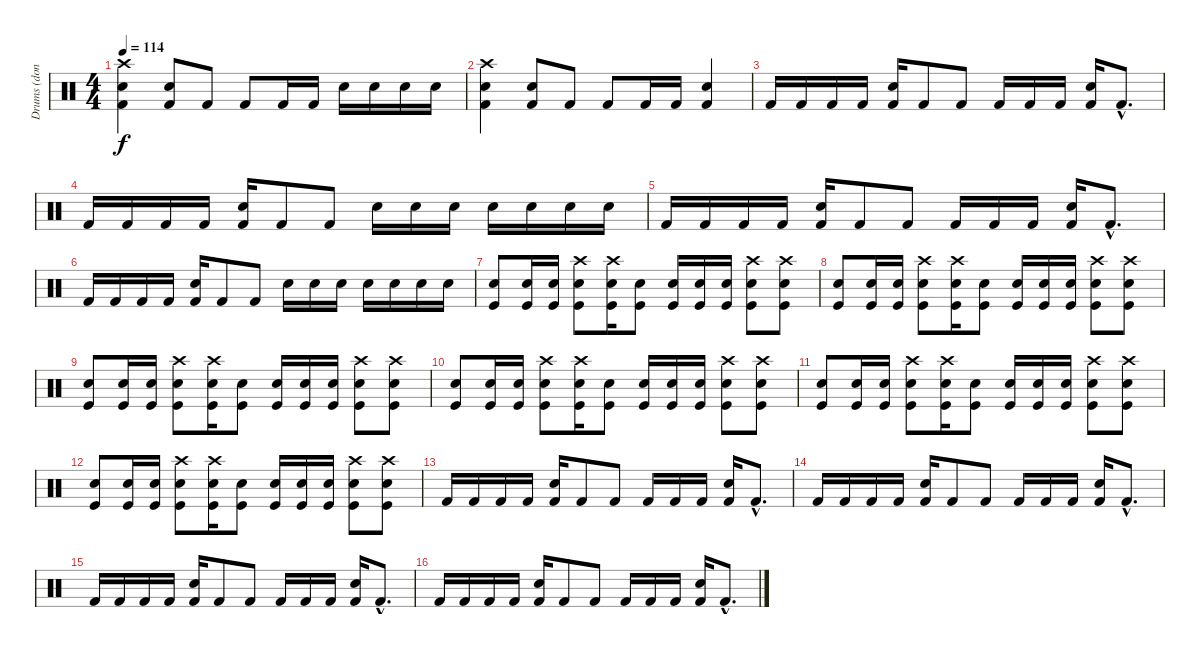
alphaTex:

\track ("Drums (done badly)" "Drums (don") {instrument percussion}
\staff {score}
\articulation defaults
\ts (4 4)
\tempo 114
\clef neutral
\ks c
("Crash high (hit)" "Snare (hit) 2" "Kick (hit) 2").4{dy f} ("Snare (hit) 2" "Kick (hit) 2").8 "Kick (hit) 2".8 "Kick (hit) 2".8 "Kick (hit) 2".16 "Kick (hit) 2".16 "Snare (hit) 2".16 "Snare (hit) 2".16 "Snare (hit) 2".16 "Snare (hit) 2".16 |
("Crash high (hit)" "Snare (hit) 2" "Kick (hit) 2").4 ("Snare (hit) 2" "Kick (hit) 2").8 "Kick (hit) 2".8 "Kick (hit) 2".8 "Kick (hit) 2".16 "Kick (hit) 2".16 ("Snare (hit) 2" "Kick (hit) 2").4 |
"Kick (hit) 2".16 "Kick (hit) 2".16 "Kick (hit) 2".16 "Kick (hit) 2".16 ("Snare (hit) 2" "Kick (hit) 2").16 "Kick (hit) 2".8 "Kick (hit) 2".8 "Kick (hit) 2".16 "Kick (hit) 2".16 "Kick (hit) 2".16 ("Snare (hit) 2" "Kick (hit) 2").16 "Kick (hit) 2"{hac}.8{d} |
"Kick (hit) 2".16 "Kick (hit) 2".16 "Kick (hit) 2".16 "Kick (hit) 2".16 ("Snare (hit) 2" "Kick (hit) 2").16 "Kick (hit) 2".8 "Kick (hit) 2".8 "Snare (hit) 2".16 "Snare (hit) 2".16 "Snare (hit) 2".16 "Snare (hit) 2".16 "Snare (hit) 2".16 "Snare (hit) 2".16 "Snare (hit) 2".16 |
"Kick (hit) 2".16 "Kick (hit) 2".16 "Kick (hit) 2".16 "Kick (hit) 2".16 ("Snare (hit) 2" "Kick (hit) 2").16 "Kick (hit) 2".8 "Kick (hit) 2".8 "Kick (hit) 2".16 "Kick (hit) 2".16 "Kick (hit) 2".16 ("Snare (hit) 2" "Kick (hit) 2").16 "Kick (hit) 2"{hac}.8{d} |
"Kick (hit) 2".16 "Kick (hit) 2".16 "Kick (hit) 2".16 "Kick (hit) 2".16 ("Snare (hit) 2" "Kick (hit) 2").16 "Kick (hit) 2".8 "Kick (hit) 2".8 "Snare (hit) 2".16 "Snare (hit) 2".16 "Snare (hit) 2".16 "Snare (hit) 2".16 "Snare (hit) 2".16 "Snare (hit) 2".16 "Snare (hit) 2".16 |
("Snare (hit) 2" "Kick (hit)").8 ("Snare (hit) 2" "Kick (hit)").16 ("Snare (hit) 2" "Kick (hit)").16 ("Crash high (hit)" "Snare (hit) 2" "Kick (hit)").8 ("Crash high (hit)" "Snare (hit) 2" "Kick (hit)").16 ("Snare (hit) 2" "Kick (hit)").8 ("Snare (hit) 2" "Kick (hit)").16 ("Snare (hit) 2" "Kick (hit)").16 ("Snare (hit) 2" "Kick (hit)").16 ("Crash high (hit)" "Snare (hit) 2" "Kick (hit)").8 ("Crash high (hit)" "Snare (hit) 2" "Kick (hit)").8 |
("Snare (hit) 2" "Kick (hit)").8 ("Snare (hit) 2" "Kick (hit)").16 ("Snare (hit) 2" "Kick (hit)").16 ("Crash high (hit)" "Snare (hit) 2" "Kick (hit)").8 ("Crash high (hit)" "Snare (hit) 2" "Kick (hit)").16 ("Snare (hit) 2" "Kick (hit)").8 ("Snare (hit) 2" "Kick (hit)").16 ("Snare (hit) 2" "Kick (hit)").16 ("Snare (hit) 2" "Kick (hit)").16 ("Crash high (hit)" "Snare (hit) 2" "Kick (hit)").8 ("Crash high (hit)" "Snare (hit) 2" "Kick (hit)").8 |
("Snare (hit) 2" "Kick (hit)").8 ("Snare (hit) 2" "Kick (hit)").16 ("Snare (hit) 2" "Kick (hit)").16 ("Crash high (hit)" "Snare (hit) 2" "Kick (hit)").8 ("Crash high (hit)" "Snare (hit) 2" "Kick (hit)").16 ("Snare (hit) 2" "Kick (hit)").8 ("Snare (hit) 2" "Kick (hit)").16 ("Snare (hit) 2" "Kick (hit)").16 ("Snare (hit) 2" "Kick (hit)").16 ("Crash high (hit)" "Snare (hit) 2" "Kick (hit)").8 ("Crash high (hit)" "Snare (hit) 2" "Kick (hit)").8 |
("Snare (hit) 2" "Kick (hit)").8 ("Snare (hit) 2" "Kick (hit)").16 ("Snare (hit) 2" "Kick (hit)").16 ("Crash high (hit)" "Snare (hit) 2" "Kick (hit)").8 ("Crash high (hit)" "Snare (hit) 2" "Kick (hit)").16 ("Snare (hit) 2" "Kick (hit)").8 ("Snare (hit) 2" "Kick (hit)").16 ("Snare (hit) 2" "Kick (hit)").16 ("Snare (hit) 2" "Kick (hit)").16 ("Crash high (hit)" "Snare (hit) 2" "Kick (hit)").8 ("Crash high (hit)" "Snare (hit) 2" "Kick (hit)").8 |
("Snare (hit) 2" "Kick (hit)").8 ("Snare (hit) 2" "Kick (hit)").16 ("Snare (hit) 2" "Kick (hit)").16 ("Crash high (hit)" "Snare (hit) 2" "Kick (hit)").8 ("Crash high (hit)" "Snare (hit) 2" "Kick (hit)").16 ("Snare (hit) 2" "Kick (hit)").8 ("Snare (hit) 2" "Kick (hit)").16 ("Snare (hit) 2" "Kick (hit)").16 ("Snare (hit) 2" "Kick (hit)").16 ("Crash high (hit)" "Snare (hit) 2" "Kick (hit)").8 ("Crash high (hit)" "Snare (hit) 2" "Kick (hit)").8 |
("Snare (hit) 2" "Kick (hit)").8 ("Snare (hit) 2" "Kick (hit)").16 ("Snare (hit) 2" "Kick (hit)").16 ("Crash high (hit)" "Snare (hit) 2" "Kick (hit)").8 ("Crash high (hit)" "Snare (hit) 2" "Kick (hit)").16 ("Snare (hit) 2" "Kick (hit)").8 ("Snare (hit) 2" "Kick (hit)").16 ("Snare (hit) 2" "Kick (hit)").16 ("Snare (hit) 2" "Kick (hit)").16 ("Crash high (hit)" "Snare (hit) 2" "Kick (hit)").8 ("Crash high (hit)" "Snare (hit) 2" "Kick (hit)").8 |
"Kick (hit) 2".16 "Kick (hit) 2".16 "Kick (hit) 2".16 "Kick (hit) 2".16 ("Snare (hit) 2" "Kick (hit) 2").16 "Kick (hit) 2".8 "Kick (hit) 2".8 "Kick (hit) 2".16 "Kick (hit) 2".16 "Kick (hit) 2".16 ("Snare (hit) 2" "Kick (hit) 2").16 "Kick (hit) 2"{hac}.8{d} |
"Kick (hit) 2".16 "Kick (hit) 2".16 "Kick (hit) 2".16 "Kick (hit) 2".16 ("Snare (hit) 2" "Kick (hit) 2").16 "Kick (hit) 2".8 "Kick (hit) 2".8 "Kick (hit) 2".16 "Kick (hit) 2".16 "Kick (hit) 2".16 ("Snare (hit) 2" "Kick (hit) 2").16 "Kick (hit) 2"{hac}.8{d} |
"Kick (hit) 2".16 "Kick (hit) 2".16 "Kick (hit) 2".16 "Kick (hit) 2".16 ("Snare (hit) 2" "Kick (hit) 2").16 "Kick (hit) 2".8 "Kick (hit) 2".8 "Kick (hit) 2".16 "Kick (hit) 2".16 "Kick (hit) 2".16 ("Snare (hit) 2" "Kick (hit) 2").16 "Kick (hit) 2"{hac}.8{d} |
"Kick (hit) 2".16 "Kick (hit) 2".16 "Kick (hit) 2".16 "Kick (hit) 2".16 ("Snare (hit) 2" "Kick (hit) 2").16 "Kick (hit) 2".8 "Kick (hit) 2".8 "Kick (hit) 2".16 "Kick (hit) 2".16 "Kick (hit) 2".16 ("Snare (hit) 2" "Kick (hit) 2").16 "Kick (hit) 2"{hac}.8{d}
